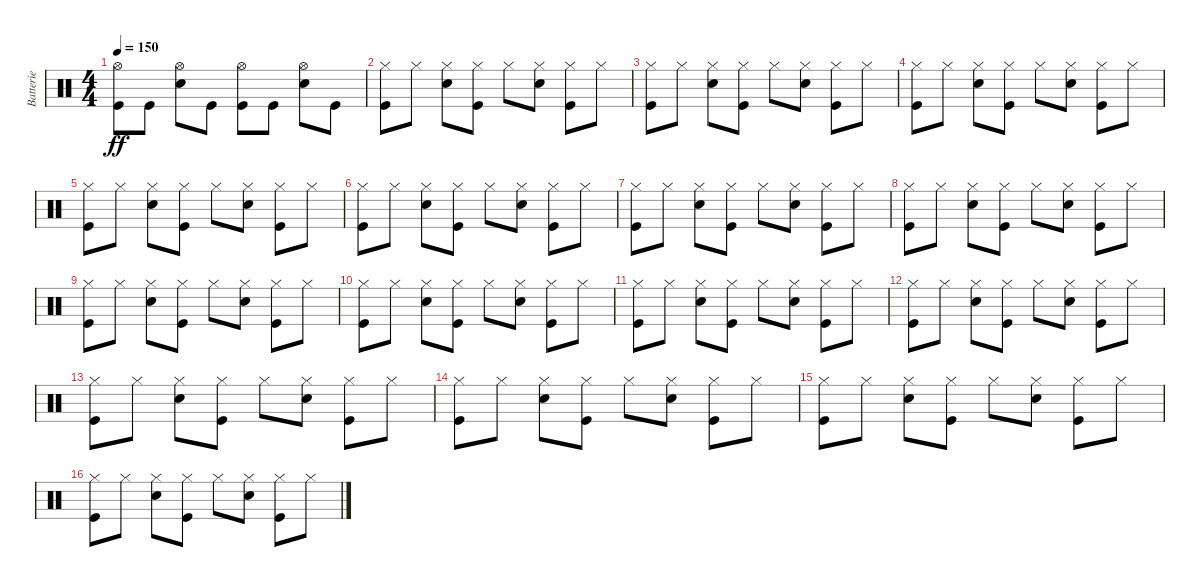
\track ("Batterie" "Batterie") {instrument percussion}
\staff {score}
\articulation defaults
\ts (4 4)
\tempo 150
\clef neutral
\ks c
("Kick (hit)" "Hi-Hat (open)").8{dy ff} "Kick (hit)".8 ("Electric Snare (hit)" "Hi-Hat (open)").8 "Kick (hit)".8 ("Kick (hit)" "Hi-Hat (open)").8 "Kick (hit)".8 ("Electric Snare (hit)" "Hi-Hat (open)").8 "Kick (hit)".8 |
("Kick (hit)" "Hi-Hat (closed)").8 "Hi-Hat (closed)".8 ("Electric Snare (hit)" "Hi-Hat (closed)").8 ("Kick (hit)" "Hi-Hat (closed)").8 "Hi-Hat (closed)".8 ("Electric Snare (hit)" "Hi-Hat (closed)").8 ("Kick (hit)" "Hi-Hat (closed)").8 "Hi-Hat (closed)".8 |
("Kick (hit)" "Hi-Hat (closed)").8 "Hi-Hat (closed)".8 ("Electric Snare (hit)" "Hi-Hat (closed)").8 ("Kick (hit)" "Hi-Hat (closed)").8 "Hi-Hat (closed)".8 ("Electric Snare (hit)" "Hi-Hat (closed)").8 ("Kick (hit)" "Hi-Hat (closed)").8 "Hi-Hat (closed)".8 |
("Kick (hit)" "Hi-Hat (closed)").8 "Hi-Hat (closed)".8 ("Electric Snare (hit)" "Hi-Hat (closed)").8 ("Kick (hit)" "Hi-Hat (closed)").8 "Hi-Hat (closed)".8 ("Electric Snare (hit)" "Hi-Hat (closed)").8 ("Kick (hit)" "Hi-Hat (closed)").8 "Hi-Hat (closed)".8 |
("Kick (hit)" "Hi-Hat (closed)").8 "Hi-Hat (closed)".8 ("Electric Snare (hit)" "Hi-Hat (closed)").8 ("Kick (hit)" "Hi-Hat (closed)").8 "Hi-Hat (closed)".8 ("Electric Snare (hit)" "Hi-Hat (closed)").8 ("Kick (hit)" "Hi-Hat (closed)").8 "Hi-Hat (closed)".8 |
("Kick (hit)" "Hi-Hat (closed)").8 "Hi-Hat (closed)".8 ("Electric Snare (hit)" "Hi-Hat (closed)").8 ("Kick (hit)" "Hi-Hat (closed)").8 "Hi-Hat (closed)".8 ("Electric Snare (hit)" "Hi-Hat (closed)").8 ("Kick (hit)" "Hi-Hat (closed)").8 "Hi-Hat (closed)".8 |
("Kick (hit)" "Hi-Hat (closed)").8 "Hi-Hat (closed)".8 ("Electric Snare (hit)" "Hi-Hat (closed)").8 ("Kick (hit)" "Hi-Hat (closed)").8 "Hi-Hat (closed)".8 ("Electric Snare (hit)" "Hi-Hat (closed)").8 ("Kick (hit)" "Hi-Hat (closed)").8 "Hi-Hat (closed)".8 |
("Kick (hit)" "Hi-Hat (closed)").8 "Hi-Hat (closed)".8 ("Electric Snare (hit)" "Hi-Hat (closed)").8 ("Kick (hit)" "Hi-Hat (closed)").8 "Hi-Hat (closed)".8 ("Electric Snare (hit)" "Hi-Hat (closed)").8 ("Kick (hit)" "Hi-Hat (closed)").8 "Hi-Hat (closed)".8 |
("Kick (hit)" "Hi-Hat (closed)").8 "Hi-Hat (closed)".8 ("Electric Snare (hit)" "Hi-Hat (closed)").8 ("Kick (hit)" "Hi-Hat (closed)").8 "Hi-Hat (closed)".8 ("Electric Snare (hit)" "Hi-Hat (closed)").8 ("Kick (hit)" "Hi-Hat (closed)").8 "Hi-Hat (closed)".8 |
("Kick (hit)" "Hi-Hat (closed)").8 "Hi-Hat (closed)".8 ("Electric Snare (hit)" "Hi-Hat (closed)").8 ("Kick (hit)" "Hi-Hat (closed)").8 "Hi-Hat (closed)".8 ("Electric Snare (hit)" "Hi-Hat (closed)").8 ("Kick (hit)" "Hi-Hat (closed)").8 "Hi-Hat (closed)".8 |
("Kick (hit)" "Hi-Hat (closed)").8 "Hi-Hat (closed)".8 ("Electric Snare (hit)" "Hi-Hat (closed)").8 ("Kick (hit)" "Hi-Hat (closed)").8 "Hi-Hat (closed)".8 ("Electric Snare (hit)" "Hi-Hat (closed)").8 ("Kick (hit)" "Hi-Hat (closed)").8 "Hi-Hat (closed)".8 |
("Kick (hit)" "Hi-Hat (closed)").8 "Hi-Hat (closed)".8 ("Electric Snare (hit)" "Hi-Hat (closed)").8 ("Kick (hit)" "Hi-Hat (closed)").8 "Hi-Hat (closed)".8 ("Electric Snare (hit)" "Hi-Hat (closed)").8 ("Kick (hit)" "Hi-Hat (closed)").8 "Hi-Hat (closed)".8 |
("Kick (hit)" "Hi-Hat (closed)").8 "Hi-Hat (closed)".8 ("Electric Snare (hit)" "Hi-Hat (closed)").8 ("Kick (hit)" "Hi-Hat (closed)").8 "Hi-Hat (closed)".8 ("Electric Snare (hit)" "Hi-Hat (closed)").8 ("Kick (hit)" "Hi-Hat (closed)").8 "Hi-Hat (closed)".8 |
("Kick (hit)" "Hi-Hat (closed)").8 "Hi-Hat (closed)".8 ("Electric Snare (hit)" "Hi-Hat (closed)").8 ("Kick (hit)" "Hi-Hat (closed)").8 "Hi-Hat (closed)".8 ("Electric Snare (hit)" "Hi-Hat (closed)").8 ("Kick (hit)" "Hi-Hat (closed)").8 "Hi-Hat (closed)".8 |
("Kick (hit)" "Hi-Hat (closed)").8 "Hi-Hat (closed)".8 ("Electric Snare (hit)" "Hi-Hat (closed)").8 ("Kick (hit)" "Hi-Hat (closed)").8 "Hi-Hat (closed)".8 ("Electric Snare (hit)" "Hi-Hat (closed)").8 ("Kick (hit)" "Hi-Hat (closed)").8 "Hi-Hat (closed)".8 |
("Kick (hit)" "Hi-Hat (closed)").8 "Hi-Hat (closed)".8 ("Electric Snare (hit)" "Hi-Hat (closed)").8 ("Kick (hit)" "Hi-Hat (closed)").8 "Hi-Hat (closed)".8 ("Electric Snare (hit)" "Hi-Hat (closed)").8 ("Kick (hit)" "Hi-Hat (closed)").8 "Hi-Hat (closed)".8
